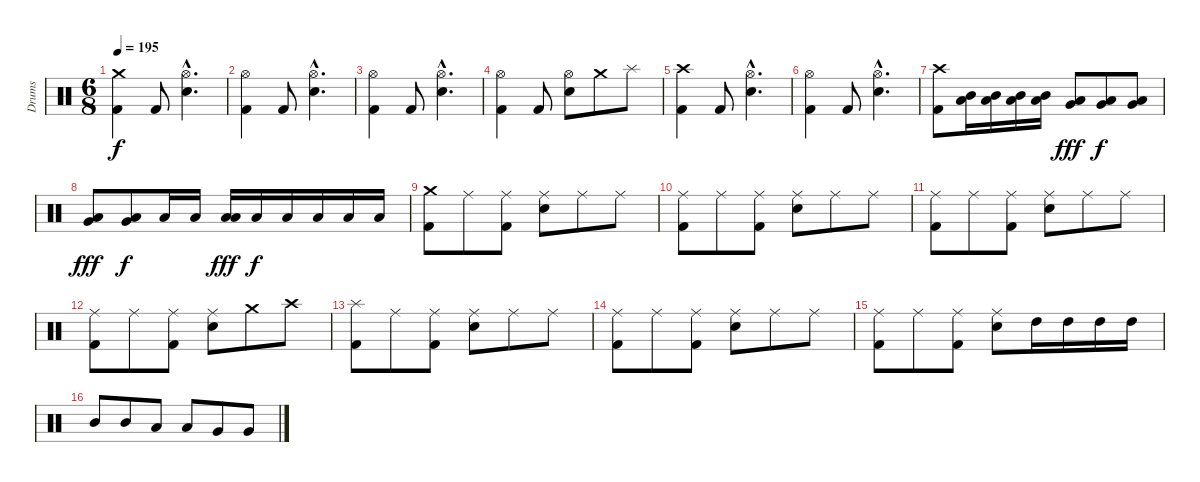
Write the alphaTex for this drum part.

\track ("Drums" "Drums") {instrument percussion}
\staff {score}
\articulation defaults
\ts (6 8)
\tempo 195
\clef neutral
\ks c
("Crash medium (hit)" "Kick (hit) 2").4{dy f} "Kick (hit) 2".8 ("Hi-Hat (open)"{hac} "Electric Snare (hit)"{hac}).4{d} |
("Hi-Hat (open)" "Kick (hit) 2").4 "Kick (hit) 2".8 ("Hi-Hat (open)"{hac} "Electric Snare (hit)"{hac}).4{d} |
("Hi-Hat (open)" "Kick (hit) 2").4 "Kick (hit) 2".8 ("Hi-Hat (open)"{hac} "Electric Snare (hit)"{hac}).4{d} |
("Hi-Hat (open)" "Kick (hit) 2").4 "Kick (hit) 2".8 ("Hi-Hat (open)" "Electric Snare (hit)").8 "Crash medium (hit)".8 "Splash (hit)".8 |
("Crash high (hit)" "Kick (hit) 2").4 "Kick (hit) 2".8 ("Hi-Hat (open)"{hac} "Electric Snare (hit)"{hac}).4{d} |
("Hi-Hat (open)" "Kick (hit) 2").4 "Kick (hit) 2".8 ("Hi-Hat (open)"{hac} "Electric Snare (hit)"{hac}).4{d} |
("Crash high (hit)" "Kick (hit) 2").8 ("Mid Tom (hit)" "Low Tom (hit)").16 ("Mid Tom (hit)" "Low Tom (hit)").16 ("Mid Tom (hit)" "Low Tom (hit)").16 ("Mid Tom (hit)" "Low Tom (hit)").16 ("Low Tom (hit)" "Very Low Tom (hit)").8{dy fff} ("Low Tom (hit)" "Very Low Tom (hit)").8{dy f} ("Very Low Tom (hit)" "Low Floor Tom (hit)").8 |
("Very Low Tom (hit)" "Low Floor Tom (hit)").8{dy fff} ("Very Low Tom (hit)" "Low Floor Tom (hit)").8{dy f} "Low Floor Tom (hit)".16 "Low Floor Tom (hit)".16 ("Low Floor Tom (hit)" "Low Floor Tom (hit)").16{dy fff} "Low Floor Tom (hit)".16{dy f} "Low Floor Tom (hit)".16 "Low Floor Tom (hit)".16 "Low Floor Tom (hit)".16 "Low Floor Tom (hit)".16 |
("Crash medium (hit)" "Kick (hit) 2").8 "Ride (middle)".8 ("Ride (middle)" "Kick (hit) 2").8 ("Ride (middle)" "Electric Snare (hit)").8 "Ride (middle)".8 "Ride (middle)".8 |
("Ride (middle)" "Kick (hit) 2").8 "Ride (middle)".8 ("Ride (middle)" "Kick (hit) 2").8 ("Ride (middle)" "Electric Snare (hit)").8 "Ride (middle)".8 "Ride (middle)".8 |
("Ride (middle)" "Kick (hit) 2").8 "Ride (middle)".8 ("Ride (middle)" "Kick (hit) 2").8 ("Ride (middle)" "Electric Snare (hit)").8 "Ride (middle)".8 "Ride (middle)".8 |
("Ride (middle)" "Kick (hit) 2").8 "Ride (middle)".8 ("Ride (middle)" "Kick (hit) 2").8 ("Ride (middle)" "Electric Snare (hit)").8 "Crash medium (hit)".8 "Crash high (hit)".8 |
("Splash (hit)" "Kick (hit) 2").8 "Ride (middle)".8 ("Ride (middle)" "Kick (hit) 2").8 ("Ride (middle)" "Electric Snare (hit)").8 "Ride (middle)".8 "Ride (middle)".8 |
("Ride (middle)" "Kick (hit) 2").8 "Ride (middle)".8 ("Ride (middle)" "Kick (hit) 2").8 ("Ride (middle)" "Electric Snare (hit)").8 "Ride (middle)".8 "Ride (middle)".8 |
("Ride (middle)" "Kick (hit) 2").8 "Ride (middle)".8 ("Ride (middle)" "Kick (hit) 2").8 ("Ride (middle)" "Electric Snare (hit)").8 "High Tom (hit)".16 "High Tom (hit)".16 "High Tom (hit)".16 "High Tom (hit)".16 |
"Mid Tom (hit)".8 "Mid Tom (hit)".8 "Low Tom (hit)".8 "Low Tom (hit)".8 "Very Low Tom (hit)".8 "Very Low Tom (hit)".8
